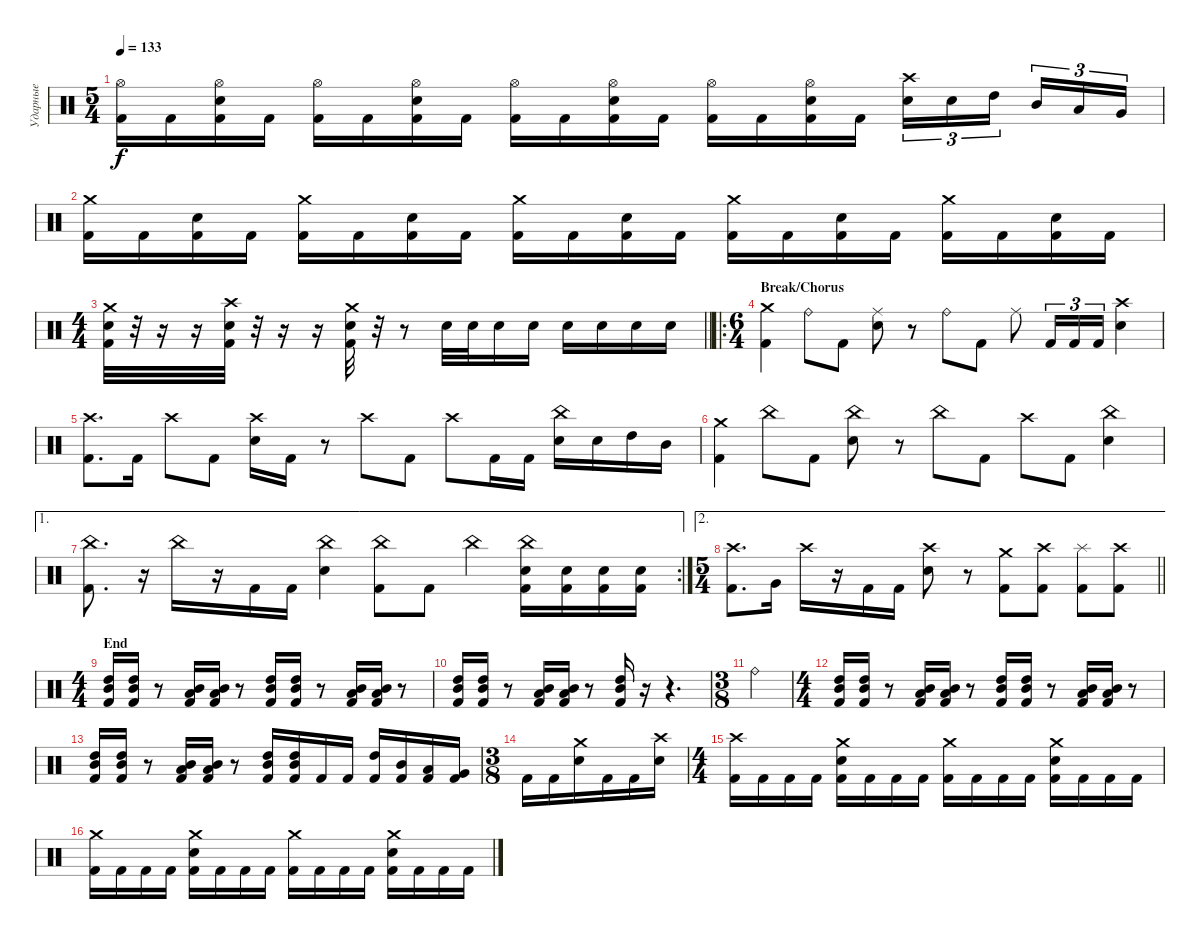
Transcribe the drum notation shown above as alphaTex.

\track ("Ударные" "Ударные") {instrument percussion}
\staff {score}
\articulation defaults
\ts (5 4)
\tempo 133
\clef neutral
\ks c
("Hi-Hat (open)" "Kick (hit) 2").16{dy f} "Kick (hit) 2".16 ("Hi-Hat (open)" "Snare (hit) 2" "Kick (hit) 2").16 "Kick (hit) 2".16 ("Hi-Hat (open)" "Kick (hit) 2").16 "Kick (hit) 2".16 ("Hi-Hat (open)" "Snare (hit) 2" "Kick (hit) 2").16 "Kick (hit) 2".16 ("Hi-Hat (open)" "Kick (hit) 2").16 "Kick (hit) 2".16 ("Hi-Hat (open)" "Snare (hit) 2" "Kick (hit) 2").16 "Kick (hit) 2".16 ("Hi-Hat (open)" "Kick (hit) 2").16 "Kick (hit) 2".16 ("Hi-Hat (open)" "Snare (hit) 2" "Kick (hit) 2").16 "Kick (hit) 2".16 ("Crash high (hit)" "Snare (hit) 2").16{tu (3 2)} "Snare (hit) 2".16{tu (3 2)} "High Tom (hit)".16{tu (3 2) beam splitsecondary} "Mid Tom (hit)".16{tu (3 2)} "Low Tom (hit)".16{tu (3 2)} "Very Low Tom (hit)".16{tu (3 2)} |
("Crash medium (hit)" "Kick (hit) 2").16 "Kick (hit) 2".16 ("Snare (hit) 2" "Kick (hit) 2").16 "Kick (hit) 2".16 ("Crash medium (hit)" "Kick (hit) 2").16 "Kick (hit) 2".16 ("Snare (hit) 2" "Kick (hit) 2").16 "Kick (hit) 2".16 ("Crash medium (hit)" "Kick (hit) 2").16 "Kick (hit) 2".16 ("Snare (hit) 2" "Kick (hit) 2").16 "Kick (hit) 2".16 ("Crash medium (hit)" "Kick (hit) 2").16 "Kick (hit) 2".16 ("Snare (hit) 2" "Kick (hit) 2").16 "Kick (hit) 2".16 ("Crash medium (hit)" "Kick (hit) 2").16 "Kick (hit) 2".16 ("Snare (hit) 2" "Kick (hit) 2").16 "Kick (hit) 2".16 |
\ts (4 4)
\barLineRight lightlight
("Crash medium (hit)" "Snare (hit) 2" "Kick (hit) 2").32 r.32 r.16 r.16 ("Crash high (hit)" "Snare (hit) 2" "Kick (hit) 2").32 r.32 r.16 r.16 ("Crash medium (hit)" "Snare (hit) 2" "Kick (hit) 2").32 r.32 r.8 "Snare (hit) 2".32 "Snare (hit) 2".32 "Snare (hit) 2".16 "Snare (hit) 2".16 "Snare (hit) 2".16 "Snare (hit) 2".16 "Snare (hit) 2".16 "Snare (hit) 2".16 |
\ro
\ts (6 4)
\section ("" "Break/Chorus")
("Crash medium (hit)" "Kick (hit) 2").4 "Ride (bell)".8 "Kick (hit) 2".8 ("Ride (middle)" "Snare (hit) 2").8 r.8 "Ride (bell)".8 "Kick (hit) 2".8 "Ride (middle)".8 "Kick (hit) 2".16{tu (3 2)} "Kick (hit) 2".16{tu (3 2)} "Kick (hit) 2".16{tu (3 2)} ("Crash high (hit)" "Snare (hit) 2").4 |
("Crash high (hit)" "Kick (hit) 2").8{d} "Kick (hit) 2".16 "Crash high (hit)".8 "Kick (hit) 2".8 ("Crash high (hit)" "Snare (hit) 2").16 "Kick (hit) 2".16 r.8 "Crash high (hit)".8 "Kick (hit) 2".8 "Crash high (hit)".8 "Kick (hit) 2".16 "Kick (hit) 2".16 ("China (hit)" "Snare (hit) 2").16 "Snare (hit) 2".16 "High Tom (hit)".16 "Mid Tom (hit)".16 |
("Crash medium (hit)" "Kick (hit) 2").4 "China (hit)".8 "Kick (hit) 2".8 ("China (hit)" "Snare (hit) 2").8 r.8 "China (hit)".8 "Kick (hit) 2".8 "Crash high (hit)".8 "Kick (hit) 2".8 ("China (hit)" "Snare (hit) 2").4 |
\ae 1
\rc 2
("China (hit)" "Kick (hit) 2").8{d} r.16 "China (hit)".16 r.16 "Kick (hit) 2".16 "Kick (hit) 2".16 ("China (hit)" "Snare (hit) 2").4 ("China (hit)" "Kick (hit) 2").8 "Kick (hit) 2".8 "China (hit)".4 ("China (hit)" "Snare (hit) 2" "Kick (hit) 2").16 ("Snare (hit) 2" "Kick (hit) 2").16 ("Snare (hit) 2" "Kick (hit) 2").16 ("Snare (hit) 2" "Kick (hit) 2").16 |
\ae 2
\ts (5 4)
\barLineRight lightlight
("Crash high (hit)" "Kick (hit) 2").8{d} "Very Low Tom (hit)".16 "Crash high (hit)".16 r.16 "Kick (hit) 2".16 "Kick (hit) 2".16 ("Crash high (hit)" "Snare (hit) 2").8 r.8 ("Crash medium (hit)" "Kick (hit) 2").8 ("Crash high (hit)" "Kick (hit) 2").8 ("Splash (hit)" "Kick (hit) 2").8 ("Crash high (hit)" "Kick (hit) 2").8 |
\ts (4 4)
\section ("" "End")
("High Tom (hit)" "Mid Tom (hit)" "Kick (hit) 2").16 ("High Tom (hit)" "Mid Tom (hit)" "Kick (hit) 2").16 r.8 ("Mid Tom (hit)" "Low Tom (hit)" "Kick (hit) 2").16 ("Mid Tom (hit)" "Low Tom (hit)" "Kick (hit) 2").16 r.8 ("High Tom (hit)" "Mid Tom (hit)" "Kick (hit) 2").16 ("High Tom (hit)" "Mid Tom (hit)" "Kick (hit) 2").16 r.8 ("Mid Tom (hit)" "Low Tom (hit)" "Kick (hit) 2").16 ("Mid Tom (hit)" "Low Tom (hit)" "Kick (hit) 2").16 r.8 |
("High Tom (hit)" "Mid Tom (hit)" "Kick (hit) 2").16 ("High Tom (hit)" "Mid Tom (hit)" "Kick (hit) 2").16 r.8 ("Mid Tom (hit)" "Low Tom (hit)" "Kick (hit) 2").16 ("Mid Tom (hit)" "Low Tom (hit)" "Kick (hit) 2").16 r.8 ("High Tom (hit)" "Mid Tom (hit)" "Kick (hit) 2").16 r.16 r.4{d} |
\ts (3 8)
"Ride (bell)".4 |
\ts (4 4)
("High Tom (hit)" "Mid Tom (hit)" "Kick (hit) 2").16 ("High Tom (hit)" "Mid Tom (hit)" "Kick (hit) 2").16 r.8 ("Mid Tom (hit)" "Low Tom (hit)" "Kick (hit) 2").16 ("Mid Tom (hit)" "Low Tom (hit)" "Kick (hit) 2").16 r.8 ("High Tom (hit)" "Mid Tom (hit)" "Kick (hit) 2").16 ("High Tom (hit)" "Mid Tom (hit)" "Kick (hit) 2").16 r.8 ("Mid Tom (hit)" "Low Tom (hit)" "Kick (hit) 2").16 ("Mid Tom (hit)" "Low Tom (hit)" "Kick (hit) 2").16 r.8 |
("High Tom (hit)" "Mid Tom (hit)" "Kick (hit) 2").16 ("High Tom (hit)" "Mid Tom (hit)" "Kick (hit) 2").16 r.8 ("Mid Tom (hit)" "Low Tom (hit)" "Kick (hit) 2").16 ("Mid Tom (hit)" "Low Tom (hit)" "Kick (hit) 2").16 r.8 ("High Tom (hit)" "Mid Tom (hit)" "Kick (hit) 2").16 ("High Tom (hit)" "Mid Tom (hit)" "Kick (hit) 2").16 "Kick (hit) 2".16 "Kick (hit) 2".16 ("High Tom (hit)" "Kick (hit) 2").16 ("Mid Tom (hit)" "Kick (hit) 2").16 ("Low Tom (hit)" "Kick (hit) 2").16 ("Very Low Tom (hit)" "Kick (hit) 2").16 |
\ts (3 8)
"Kick (hit) 2".16 "Kick (hit) 2".16 ("Crash medium (hit)" "Snare (hit) 2").16 "Kick (hit) 2".16 "Kick (hit) 2".16 ("Crash high (hit)" "Snare (hit) 2").16 |
\ts (4 4)
("Crash high (hit)" "Kick (hit) 2").16 "Kick (hit) 2".16 "Kick (hit) 2".16 "Kick (hit) 2".16 ("Crash medium (hit)" "Snare (hit) 2" "Kick (hit) 2").16 "Kick (hit) 2".16 "Kick (hit) 2".16 "Kick (hit) 2".16 ("Crash medium (hit)" "Kick (hit) 2").16 "Kick (hit) 2".16 "Kick (hit) 2".16 "Kick (hit) 2".16 ("Crash medium (hit)" "Snare (hit) 2" "Kick (hit) 2").16 "Kick (hit) 2".16 "Kick (hit) 2".16 "Kick (hit) 2".16 |
("Crash medium (hit)" "Kick (hit) 2").16 "Kick (hit) 2".16 "Kick (hit) 2".16 "Kick (hit) 2".16 ("Crash medium (hit)" "Snare (hit) 2" "Kick (hit) 2").16 "Kick (hit) 2".16 "Kick (hit) 2".16 "Kick (hit) 2".16 ("Crash medium (hit)" "Kick (hit) 2").16 "Kick (hit) 2".16 "Kick (hit) 2".16 "Kick (hit) 2".16 ("Crash medium (hit)" "Snare (hit) 2" "Kick (hit) 2").16 "Kick (hit) 2".16 "Kick (hit) 2".16 "Kick (hit) 2".16
